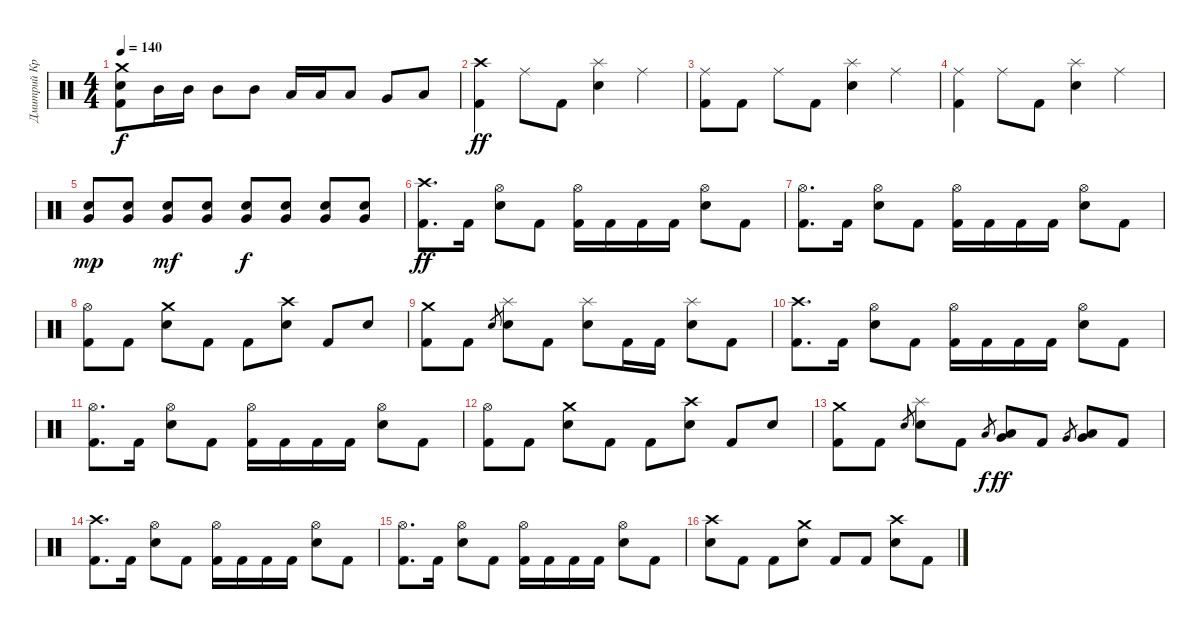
\track ("Дмитрий Кривенков" "Дмитрий Кр") {instrument percussion}
\staff {score}
\articulation defaults
\ts (4 4)
\tempo 140
\clef neutral
\ks c
("Crash medium (hit)" "Electric Snare (hit)" "Kick (hit) 2").8{dy f} "Mid Tom (hit)".16 "Mid Tom (hit)".16 "Mid Tom (hit)".8 "Mid Tom (hit)".8 "Low Tom (hit)".16 "Low Tom (hit)".16 "Low Tom (hit)".8 "Very Low Tom (hit)".8 "Low Floor Tom (hit)".8 |
("Crash high (hit)" "Kick (hit) 2").4{dy ff} "Ride (middle)".8 "Kick (hit) 2".8 ("Splash (hit)" "Electric Snare (hit)").4 "Ride (middle)".4 |
("Ride (middle)" "Kick (hit) 2").8 "Kick (hit) 2".8 "Ride (middle)".8 "Kick (hit) 2".8 ("Splash (hit)" "Electric Snare (hit)").4 "Ride (middle)".4 |
("Ride (middle)" "Kick (hit) 2").4 "Ride (middle)".8 "Kick (hit) 2".8 ("Splash (hit)" "Electric Snare (hit)").4 "Ride (middle)".4 |
("Electric Snare (hit)" "Very Low Tom (hit)").8{dy mp} ("Electric Snare (hit)" "Very Low Tom (hit)").8 ("Electric Snare (hit)" "Very Low Tom (hit)").8{dy mf} ("Electric Snare (hit)" "Very Low Tom (hit)").8 ("Electric Snare (hit)" "Very Low Tom (hit)").8{dy f} ("Electric Snare (hit)" "Very Low Tom (hit)").8 ("Electric Snare (hit)" "Very Low Tom (hit)").8 ("Electric Snare (hit)" "Very Low Tom (hit)").8 |
("Crash high (hit)" "Kick (hit) 2").8{d dy ff} "Kick (hit) 2".16 ("Hi-Hat (open)" "Electric Snare (hit)").8 "Kick (hit) 2".8 ("Hi-Hat (open)" "Kick (hit) 2").16 "Kick (hit) 2".16 "Kick (hit) 2".16 "Kick (hit) 2".16 ("Hi-Hat (open)" "Electric Snare (hit)").8 "Kick (hit) 2".8 |
("Hi-Hat (open)" "Kick (hit) 2").8{d} "Kick (hit) 2".16 ("Hi-Hat (open)" "Electric Snare (hit)").8 "Kick (hit) 2".8 ("Hi-Hat (open)" "Kick (hit) 2").16 "Kick (hit) 2".16 "Kick (hit) 2".16 "Kick (hit) 2".16 ("Hi-Hat (open)" "Electric Snare (hit)").8 "Kick (hit) 2".8 |
("Hi-Hat (open)" "Kick (hit) 2").8 "Kick (hit) 2".8 ("Crash medium (hit)" "Electric Snare (hit)").8 "Kick (hit) 2".8 "Kick (hit) 2".8 ("Crash high (hit)" "Electric Snare (hit)").8 "Kick (hit) 2".8 "Electric Snare (hit)".8 |
("Crash medium (hit)" "Kick (hit) 2").8 "Kick (hit) 2".8 "Electric Snare (hit)".8{gr} ("Splash (hit)" "Electric Snare (hit)").8 "Kick (hit) 2".8 ("Splash (hit)" "Electric Snare (hit)").8 "Kick (hit) 2".16 "Kick (hit) 2".16 ("Splash (hit)" "Electric Snare (hit)").8 "Kick (hit) 2".8 |
("Crash high (hit)" "Kick (hit) 2").8{d} "Kick (hit) 2".16 ("Hi-Hat (open)" "Electric Snare (hit)").8 "Kick (hit) 2".8 ("Hi-Hat (open)" "Kick (hit) 2").16 "Kick (hit) 2".16 "Kick (hit) 2".16 "Kick (hit) 2".16 ("Hi-Hat (open)" "Electric Snare (hit)").8 "Kick (hit) 2".8 |
("Hi-Hat (open)" "Kick (hit) 2").8{d} "Kick (hit) 2".16 ("Hi-Hat (open)" "Electric Snare (hit)").8 "Kick (hit) 2".8 ("Hi-Hat (open)" "Kick (hit) 2").16 "Kick (hit) 2".16 "Kick (hit) 2".16 "Kick (hit) 2".16 ("Hi-Hat (open)" "Electric Snare (hit)").8 "Kick (hit) 2".8 |
("Hi-Hat (open)" "Kick (hit) 2").8 "Kick (hit) 2".8 ("Crash medium (hit)" "Electric Snare (hit)").8 "Kick (hit) 2".8 "Kick (hit) 2".8 ("Crash high (hit)" "Electric Snare (hit)").8 "Kick (hit) 2".8 "Electric Snare (hit)".8 |
("Crash medium (hit)" "Kick (hit) 2").8 "Kick (hit) 2".8 "Electric Snare (hit)".8{gr} ("Splash (hit)" "Electric Snare (hit)").8 "Kick (hit) 2".8 "Low Tom (hit)".8{gr dy f} ("Low Tom (hit)" "Very Low Tom (hit)").8{dy ff} "Kick (hit) 2".8 "Very Low Tom (hit)".8{gr} ("Very Low Tom (hit)" "Low Floor Tom (hit)").8 "Kick (hit) 2".8 |
("Crash high (hit)" "Kick (hit) 2").8{d} "Kick (hit) 2".16 ("Hi-Hat (open)" "Electric Snare (hit)").8 "Kick (hit) 2".8 ("Hi-Hat (open)" "Kick (hit) 2").16 "Kick (hit) 2".16 "Kick (hit) 2".16 "Kick (hit) 2".16 ("Hi-Hat (open)" "Electric Snare (hit)").8 "Kick (hit) 2".8 |
("Hi-Hat (open)" "Kick (hit) 2").8{d} "Kick (hit) 2".16 ("Hi-Hat (open)" "Electric Snare (hit)").8 "Kick (hit) 2".8 ("Hi-Hat (open)" "Kick (hit) 2").16 "Kick (hit) 2".16 "Kick (hit) 2".16 "Kick (hit) 2".16 ("Hi-Hat (open)" "Electric Snare (hit)").8 "Kick (hit) 2".8 |
("Crash high (hit)" "Electric Snare (hit)").8 "Kick (hit) 2".8 "Kick (hit) 2".8 ("Crash medium (hit)" "Electric Snare (hit)").8 "Kick (hit) 2".8 "Kick (hit) 2".8 ("Crash high (hit)" "Electric Snare (hit)").8 "Kick (hit) 2".8
